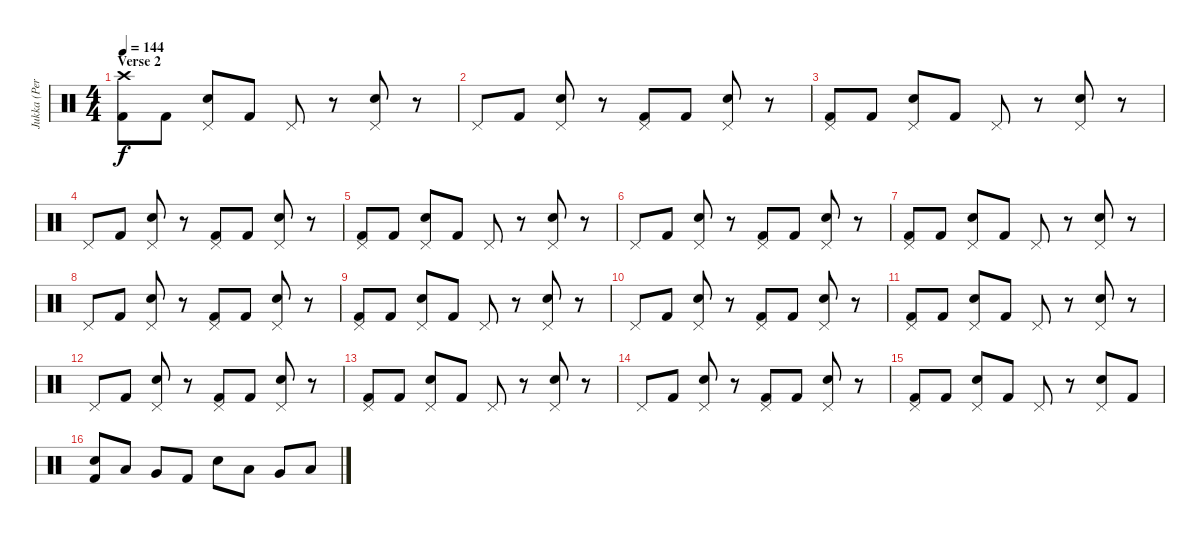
\track ("Jukka (Percussion)" "Jukka (Per") {instrument percussion}
\staff {score}
\articulation defaults
\ts (4 4)
\section ("" "Verse 2")
\tempo 144
\clef neutral
\ks c
("Crash high (hit)" "Kick (hit) 2").8{dy f} "Kick (hit) 2".8 ("Pedal Hi-Hat (hit)" "Electric Snare (hit)").8 "Kick (hit) 2".8 "Pedal Hi-Hat (hit)".8 r.8 ("Pedal Hi-Hat (hit)" "Electric Snare (hit)").8 r.8 |
"Pedal Hi-Hat (hit)".8 "Kick (hit) 2".8 ("Pedal Hi-Hat (hit)" "Electric Snare (hit)").8 r.8 ("Pedal Hi-Hat (hit)" "Kick (hit) 2").8 "Kick (hit) 2".8 ("Pedal Hi-Hat (hit)" "Electric Snare (hit)").8 r.8 |
("Pedal Hi-Hat (hit)" "Kick (hit) 2").8 "Kick (hit) 2".8 ("Pedal Hi-Hat (hit)" "Electric Snare (hit)").8 "Kick (hit) 2".8 "Pedal Hi-Hat (hit)".8 r.8 ("Pedal Hi-Hat (hit)" "Electric Snare (hit)").8 r.8 |
"Pedal Hi-Hat (hit)".8 "Kick (hit) 2".8 ("Pedal Hi-Hat (hit)" "Electric Snare (hit)").8 r.8 ("Pedal Hi-Hat (hit)" "Kick (hit) 2").8 "Kick (hit) 2".8 ("Pedal Hi-Hat (hit)" "Electric Snare (hit)").8 r.8 |
("Pedal Hi-Hat (hit)" "Kick (hit) 2").8 "Kick (hit) 2".8 ("Pedal Hi-Hat (hit)" "Electric Snare (hit)").8 "Kick (hit) 2".8 "Pedal Hi-Hat (hit)".8 r.8 ("Pedal Hi-Hat (hit)" "Electric Snare (hit)").8 r.8 |
"Pedal Hi-Hat (hit)".8 "Kick (hit) 2".8 ("Pedal Hi-Hat (hit)" "Electric Snare (hit)").8 r.8 ("Pedal Hi-Hat (hit)" "Kick (hit) 2").8 "Kick (hit) 2".8 ("Pedal Hi-Hat (hit)" "Electric Snare (hit)").8 r.8 |
("Pedal Hi-Hat (hit)" "Kick (hit) 2").8 "Kick (hit) 2".8 ("Pedal Hi-Hat (hit)" "Electric Snare (hit)").8 "Kick (hit) 2".8 "Pedal Hi-Hat (hit)".8 r.8 ("Pedal Hi-Hat (hit)" "Electric Snare (hit)").8 r.8 |
"Pedal Hi-Hat (hit)".8 "Kick (hit) 2".8 ("Pedal Hi-Hat (hit)" "Electric Snare (hit)").8 r.8 ("Pedal Hi-Hat (hit)" "Kick (hit) 2").8 "Kick (hit) 2".8 ("Pedal Hi-Hat (hit)" "Electric Snare (hit)").8 r.8 |
("Pedal Hi-Hat (hit)" "Kick (hit) 2").8 "Kick (hit) 2".8 ("Pedal Hi-Hat (hit)" "Electric Snare (hit)").8 "Kick (hit) 2".8 "Pedal Hi-Hat (hit)".8 r.8 ("Pedal Hi-Hat (hit)" "Electric Snare (hit)").8 r.8 |
"Pedal Hi-Hat (hit)".8 "Kick (hit) 2".8 ("Pedal Hi-Hat (hit)" "Electric Snare (hit)").8 r.8 ("Pedal Hi-Hat (hit)" "Kick (hit) 2").8 "Kick (hit) 2".8 ("Pedal Hi-Hat (hit)" "Electric Snare (hit)").8 r.8 |
("Pedal Hi-Hat (hit)" "Kick (hit) 2").8 "Kick (hit) 2".8 ("Pedal Hi-Hat (hit)" "Electric Snare (hit)").8 "Kick (hit) 2".8 "Pedal Hi-Hat (hit)".8 r.8 ("Pedal Hi-Hat (hit)" "Electric Snare (hit)").8 r.8 |
"Pedal Hi-Hat (hit)".8 "Kick (hit) 2".8 ("Pedal Hi-Hat (hit)" "Electric Snare (hit)").8 r.8 ("Pedal Hi-Hat (hit)" "Kick (hit) 2").8 "Kick (hit) 2".8 ("Pedal Hi-Hat (hit)" "Electric Snare (hit)").8 r.8 |
("Pedal Hi-Hat (hit)" "Kick (hit) 2").8 "Kick (hit) 2".8 ("Pedal Hi-Hat (hit)" "Electric Snare (hit)").8 "Kick (hit) 2".8 "Pedal Hi-Hat (hit)".8 r.8 ("Pedal Hi-Hat (hit)" "Electric Snare (hit)").8 r.8 |
"Pedal Hi-Hat (hit)".8 "Kick (hit) 2".8 ("Pedal Hi-Hat (hit)" "Electric Snare (hit)").8 r.8 ("Pedal Hi-Hat (hit)" "Kick (hit) 2").8 "Kick (hit) 2".8 ("Pedal Hi-Hat (hit)" "Electric Snare (hit)").8 r.8 |
("Pedal Hi-Hat (hit)" "Kick (hit) 2").8 "Kick (hit) 2".8 ("Pedal Hi-Hat (hit)" "Electric Snare (hit)").8 "Kick (hit) 2".8 "Pedal Hi-Hat (hit)".8 r.8 ("Pedal Hi-Hat (hit)" "Electric Snare (hit)").8 "Kick (hit) 2".8 |
("Electric Snare (hit)" "Kick (hit) 2").8 "Low Tom (hit)".8 "Very Low Tom (hit)".8 "Kick (hit) 2".8 "Electric Snare (hit)".8 "Low Tom (hit)".8 "Very Low Tom (hit)".8 "Low Floor Tom (hit)".8
